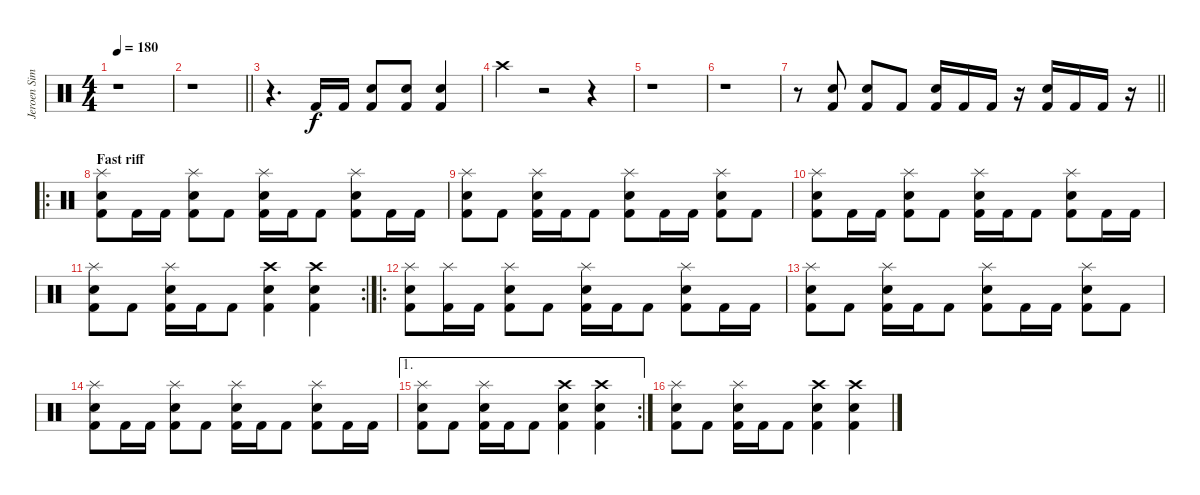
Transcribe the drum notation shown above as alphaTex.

\track ("Jeroen Simons" "Jeroen Sim") {instrument percussion}
\staff {score}
\articulation defaults
\ts (4 4)
\tempo 180
\clef neutral
\ks c
r.1{dy f} |
\barLineRight lightlight
r.1 |
\section ("" "")
r.4{d} "Kick (hit) 2".16 "Kick (hit) 2".16 ("Kick (hit) 2" "Snare (hit) 2").8 ("Kick (hit) 2" "Snare (hit) 2").8 ("Kick (hit) 2" "Snare (hit) 2").4 |
"Crash high (hit)".4 r.2 r.4 |
r.1 |
r.1 |
\barLineRight lightlight
r.8 ("Kick (hit) 2" "Snare (hit) 2").8 ("Kick (hit) 2" "Snare (hit) 2").8 "Kick (hit) 2".8 ("Kick (hit) 2" "Snare (hit) 2").16 "Kick (hit) 2".16 "Kick (hit) 2".16 r.16 ("Kick (hit) 2" "Snare (hit) 2").16 "Kick (hit) 2".16 "Kick (hit) 2".16 r.16 |
\ro
\section ("" "Fast riff")
("Kick (hit) 2" "Snare (hit) 2" "Splash (hit)").8 "Kick (hit) 2".16 "Kick (hit) 2".16 ("Kick (hit) 2" "Snare (hit) 2" "Splash (hit)").8 "Kick (hit) 2".8 ("Kick (hit) 2" "Snare (hit) 2" "Splash (hit)").16 "Kick (hit) 2".16 "Kick (hit) 2".8 ("Kick (hit) 2" "Snare (hit) 2" "Splash (hit)").8 "Kick (hit) 2".16 "Kick (hit) 2".16 |
("Kick (hit) 2" "Snare (hit) 2" "Splash (hit)").8 "Kick (hit) 2".8 ("Kick (hit) 2" "Snare (hit) 2" "Splash (hit)").16 "Kick (hit) 2".16 "Kick (hit) 2".8 ("Kick (hit) 2" "Snare (hit) 2" "Splash (hit)").8 "Kick (hit) 2".16 "Kick (hit) 2".16 ("Kick (hit) 2" "Snare (hit) 2" "Splash (hit)").8 "Kick (hit) 2".8 |
("Kick (hit) 2" "Snare (hit) 2" "Splash (hit)").8 "Kick (hit) 2".16 "Kick (hit) 2".16 ("Kick (hit) 2" "Snare (hit) 2" "Splash (hit)").8 "Kick (hit) 2".8 ("Kick (hit) 2" "Snare (hit) 2" "Splash (hit)").16 "Kick (hit) 2".16 "Kick (hit) 2".8 ("Kick (hit) 2" "Snare (hit) 2" "Splash (hit)").8 "Kick (hit) 2".16 "Kick (hit) 2".16 |
\rc 2
("Kick (hit) 2" "Snare (hit) 2" "Splash (hit)").8 "Kick (hit) 2".8 ("Kick (hit) 2" "Snare (hit) 2" "Splash (hit)").16 "Kick (hit) 2".16 "Kick (hit) 2".8 ("Kick (hit) 2" "Snare (hit) 2" "Crash high (hit)").4 ("Kick (hit) 2" "Snare (hit) 2" "Crash high (hit)").4 |
\ro
("Kick (hit) 2" "Snare (hit) 2" "Splash (hit)").8 ("Kick (hit) 2" "Splash (hit)").16 "Kick (hit) 2".16 ("Kick (hit) 2" "Snare (hit) 2" "Splash (hit)").8 "Kick (hit) 2".8 ("Kick (hit) 2" "Snare (hit) 2" "Splash (hit)").16 "Kick (hit) 2".16 "Kick (hit) 2".8 ("Kick (hit) 2" "Snare (hit) 2" "Splash (hit)").8 "Kick (hit) 2".16 "Kick (hit) 2".16 |
("Kick (hit) 2" "Snare (hit) 2" "Splash (hit)").8 "Kick (hit) 2".8 ("Kick (hit) 2" "Snare (hit) 2" "Splash (hit)").16 "Kick (hit) 2".16 "Kick (hit) 2".8 ("Kick (hit) 2" "Snare (hit) 2" "Splash (hit)").8 "Kick (hit) 2".16 "Kick (hit) 2".16 ("Kick (hit) 2" "Snare (hit) 2" "Splash (hit)").8 "Kick (hit) 2".8 |
("Kick (hit) 2" "Snare (hit) 2" "Splash (hit)").8 "Kick (hit) 2".16 "Kick (hit) 2".16 ("Kick (hit) 2" "Snare (hit) 2" "Splash (hit)").8 "Kick (hit) 2".8 ("Kick (hit) 2" "Snare (hit) 2" "Splash (hit)").16 "Kick (hit) 2".16 "Kick (hit) 2".8 ("Kick (hit) 2" "Snare (hit) 2" "Splash (hit)").8 "Kick (hit) 2".16 "Kick (hit) 2".16 |
\ae 1
\rc 2
("Kick (hit) 2" "Snare (hit) 2" "Splash (hit)").8 "Kick (hit) 2".8 ("Kick (hit) 2" "Snare (hit) 2" "Splash (hit)").16 "Kick (hit) 2".16 "Kick (hit) 2".8 ("Kick (hit) 2" "Snare (hit) 2" "Crash high (hit)").4 ("Kick (hit) 2" "Snare (hit) 2" "Crash high (hit)").4 |
("Kick (hit) 2" "Snare (hit) 2" "Splash (hit)").8 "Kick (hit) 2".8 ("Kick (hit) 2" "Snare (hit) 2" "Splash (hit)").16 "Kick (hit) 2".16 "Kick (hit) 2".8 ("Kick (hit) 2" "Snare (hit) 2" "Crash high (hit)").4 ("Kick (hit) 2" "Snare (hit) 2" "Crash high (hit)").4
